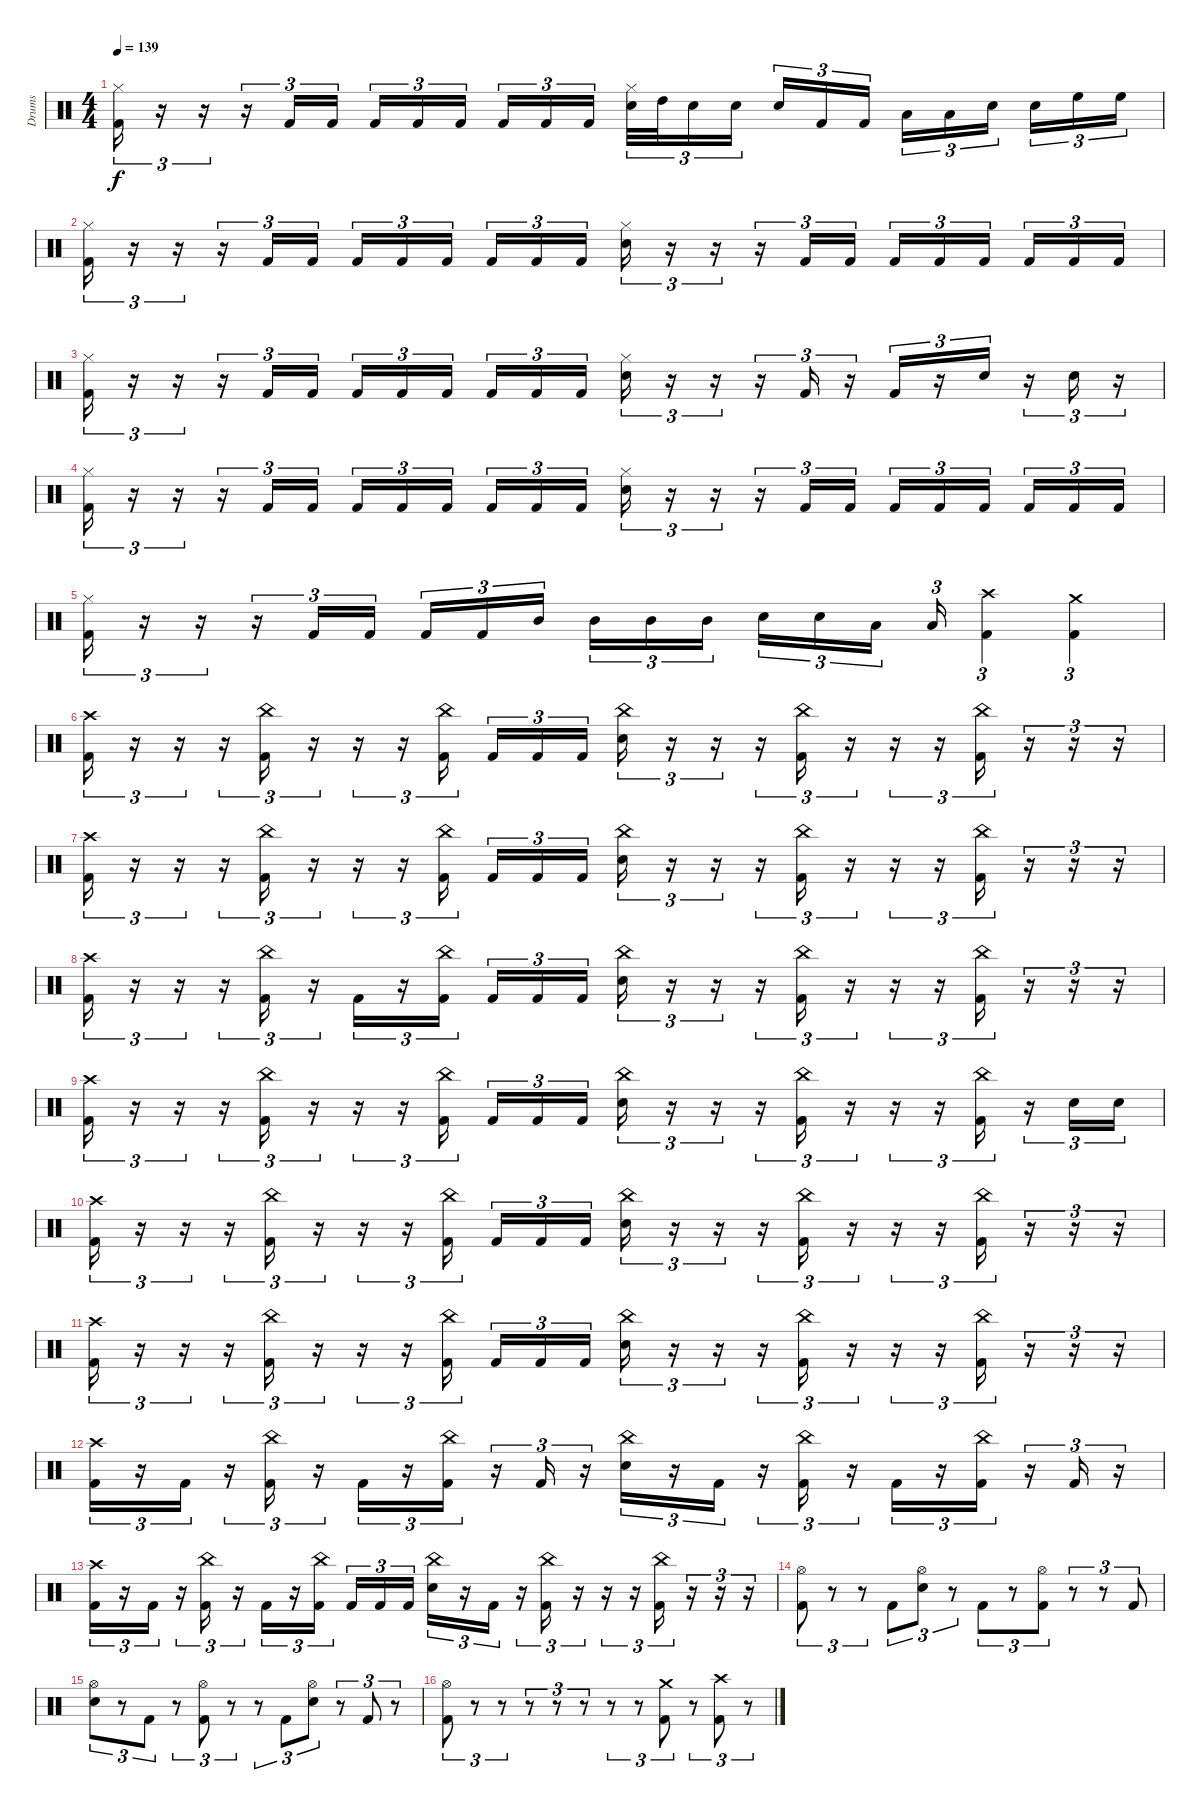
\track ("Drums" "Drums") {instrument percussion}
\staff {score}
\articulation defaults
\ts (4 4)
\tempo 139
\clef neutral
\ks c
("Kick (hit) 2" "Hi-Hat (closed)").16{tu (3 2) dy f} r.16{tu (3 2)} r.16{tu (3 2)} r.16{tu (3 2)} "Kick (hit) 2".16{tu (3 2)} "Kick (hit) 2".16{tu (3 2)} "Kick (hit) 2".16{tu (3 2)} "Kick (hit) 2".16{tu (3 2)} "Kick (hit) 2".16{tu (3 2) beam splitsecondary} "Kick (hit) 2".16{tu (3 2)} "Kick (hit) 2".16{tu (3 2)} "Kick (hit) 2".16{tu (3 2)} ("Snare (hit) 2" "Hi-Hat (closed)").32{tu (3 2)} "High Tom (hit)".32{tu (3 2)} "Snare (hit) 2".16{tu (3 2)} "Snare (hit) 2".16{tu (3 2) beam splitsecondary} "Snare (hit) 2".16{tu (3 2)} "Kick (hit) 2".16{tu (3 2)} "Kick (hit) 2".16{tu (3 2)} "Low Tom (hit)".16{tu (3 2)} "Low Tom (hit)".16{tu (3 2)} "Snare (hit) 2".16{tu (3 2) beam splitsecondary} "Snare (hit) 2".16{tu (3 2)} "High Floor Tom (hit)".16{tu (3 2)} "High Floor Tom (hit)".16{tu (3 2)} |
("Kick (hit) 2" "Hi-Hat (closed)").16{tu (3 2)} r.16{tu (3 2)} r.16{tu (3 2)} r.16{tu (3 2)} "Kick (hit) 2".16{tu (3 2)} "Kick (hit) 2".16{tu (3 2)} "Kick (hit) 2".16{tu (3 2)} "Kick (hit) 2".16{tu (3 2)} "Kick (hit) 2".16{tu (3 2) beam splitsecondary} "Kick (hit) 2".16{tu (3 2)} "Kick (hit) 2".16{tu (3 2)} "Kick (hit) 2".16{tu (3 2)} ("Snare (hit) 2" "Hi-Hat (closed)").16{tu (3 2)} r.16{tu (3 2)} r.16{tu (3 2)} r.16{tu (3 2)} "Kick (hit) 2".16{tu (3 2)} "Kick (hit) 2".16{tu (3 2)} "Kick (hit) 2".16{tu (3 2)} "Kick (hit) 2".16{tu (3 2)} "Kick (hit) 2".16{tu (3 2) beam splitsecondary} "Kick (hit) 2".16{tu (3 2)} "Kick (hit) 2".16{tu (3 2)} "Kick (hit) 2".16{tu (3 2)} |
("Kick (hit) 2" "Hi-Hat (closed)").16{tu (3 2)} r.16{tu (3 2)} r.16{tu (3 2)} r.16{tu (3 2)} "Kick (hit) 2".16{tu (3 2)} "Kick (hit) 2".16{tu (3 2)} "Kick (hit) 2".16{tu (3 2)} "Kick (hit) 2".16{tu (3 2)} "Kick (hit) 2".16{tu (3 2) beam splitsecondary} "Kick (hit) 2".16{tu (3 2)} "Kick (hit) 2".16{tu (3 2)} "Kick (hit) 2".16{tu (3 2)} ("Snare (hit) 2" "Hi-Hat (closed)").16{tu (3 2)} r.16{tu (3 2)} r.16{tu (3 2)} r.16{tu (3 2)} "Kick (hit) 2".16{tu (3 2)} r.16{tu (3 2)} "Kick (hit) 2".16{tu (3 2)} r.16{tu (3 2)} "Snare (hit) 2".16{tu (3 2)} r.16{tu (3 2)} "Snare (hit) 2".16{tu (3 2)} r.16{tu (3 2)} |
("Kick (hit) 2" "Hi-Hat (closed)").16{tu (3 2)} r.16{tu (3 2)} r.16{tu (3 2)} r.16{tu (3 2)} "Kick (hit) 2".16{tu (3 2)} "Kick (hit) 2".16{tu (3 2)} "Kick (hit) 2".16{tu (3 2)} "Kick (hit) 2".16{tu (3 2)} "Kick (hit) 2".16{tu (3 2) beam splitsecondary} "Kick (hit) 2".16{tu (3 2)} "Kick (hit) 2".16{tu (3 2)} "Kick (hit) 2".16{tu (3 2)} ("Snare (hit) 2" "Hi-Hat (closed)").16{tu (3 2)} r.16{tu (3 2)} r.16{tu (3 2)} r.16{tu (3 2)} "Kick (hit) 2".16{tu (3 2)} "Kick (hit) 2".16{tu (3 2)} "Kick (hit) 2".16{tu (3 2)} "Kick (hit) 2".16{tu (3 2)} "Kick (hit) 2".16{tu (3 2) beam splitsecondary} "Kick (hit) 2".16{tu (3 2)} "Kick (hit) 2".16{tu (3 2)} "Kick (hit) 2".16{tu (3 2)} |
("Kick (hit) 2" "Hi-Hat (closed)").16{tu (3 2)} r.16{tu (3 2)} r.16{tu (3 2)} r.16{tu (3 2)} "Kick (hit) 2".16{tu (3 2)} "Kick (hit) 2".16{tu (3 2)} "Kick (hit) 2".16{tu (3 2)} "Kick (hit) 2".16{tu (3 2)} "Mid Tom (hit)".16{tu (3 2) beam splitsecondary} "Mid Tom (hit)".16{tu (3 2)} "Mid Tom (hit)".16{tu (3 2)} "Mid Tom (hit)".16{tu (3 2)} "Snare (hit) 2".16{tu (3 2)} "Snare (hit) 2".16{tu (3 2)} "Low Tom (hit)".16{tu (3 2) beam splitsecondary} "Low Tom (hit)".16{tu (3 2)} ("Kick (hit) 2" "Crash high (hit)").4{tu (3 2)} ("Kick (hit) 2" "Crash medium (hit)").4{tu (3 2)} |
("Kick (hit) 2" "Crash high (hit)").16{tu (3 2)} r.16{tu (3 2)} r.16{tu (3 2)} r.16{tu (3 2)} ("Kick (hit) 2" "China (hit)").16{tu (3 2)} r.16{tu (3 2)} r.16{tu (3 2)} r.16{tu (3 2)} ("Kick (hit) 2" "China (hit)").16{tu (3 2) beam splitsecondary} "Kick (hit) 2".16{tu (3 2)} "Kick (hit) 2".16{tu (3 2)} "Kick (hit) 2".16{tu (3 2)} ("Snare (hit) 2" "China (hit)").16{tu (3 2)} r.16{tu (3 2)} r.16{tu (3 2)} r.16{tu (3 2)} ("Kick (hit) 2" "China (hit)").16{tu (3 2)} r.16{tu (3 2)} r.16{tu (3 2)} r.16{tu (3 2)} ("Kick (hit) 2" "China (hit)").16{tu (3 2)} r.16{tu (3 2)} r.16{tu (3 2)} r.16{tu (3 2)} |
("Kick (hit) 2" "Crash high (hit)").16{tu (3 2)} r.16{tu (3 2)} r.16{tu (3 2)} r.16{tu (3 2)} ("Kick (hit) 2" "China (hit)").16{tu (3 2)} r.16{tu (3 2)} r.16{tu (3 2)} r.16{tu (3 2)} ("Kick (hit) 2" "China (hit)").16{tu (3 2) beam splitsecondary} "Kick (hit) 2".16{tu (3 2)} "Kick (hit) 2".16{tu (3 2)} "Kick (hit) 2".16{tu (3 2)} ("Snare (hit) 2" "China (hit)").16{tu (3 2)} r.16{tu (3 2)} r.16{tu (3 2)} r.16{tu (3 2)} ("Kick (hit) 2" "China (hit)").16{tu (3 2)} r.16{tu (3 2)} r.16{tu (3 2)} r.16{tu (3 2)} ("Kick (hit) 2" "China (hit)").16{tu (3 2)} r.16{tu (3 2)} r.16{tu (3 2)} r.16{tu (3 2)} |
("Kick (hit) 2" "Crash high (hit)").16{tu (3 2)} r.16{tu (3 2)} r.16{tu (3 2)} r.16{tu (3 2)} ("Kick (hit) 2" "China (hit)").16{tu (3 2)} r.16{tu (3 2)} "Kick (hit) 2".16{tu (3 2)} r.16{tu (3 2)} ("Kick (hit) 2" "China (hit)").16{tu (3 2) beam splitsecondary} "Kick (hit) 2".16{tu (3 2)} "Kick (hit) 2".16{tu (3 2)} "Kick (hit) 2".16{tu (3 2)} ("Snare (hit) 2" "China (hit)").16{tu (3 2)} r.16{tu (3 2)} r.16{tu (3 2)} r.16{tu (3 2)} ("Kick (hit) 2" "China (hit)").16{tu (3 2)} r.16{tu (3 2)} r.16{tu (3 2)} r.16{tu (3 2)} ("Kick (hit) 2" "China (hit)").16{tu (3 2)} r.16{tu (3 2)} r.16{tu (3 2)} r.16{tu (3 2)} |
("Kick (hit) 2" "Crash high (hit)").16{tu (3 2)} r.16{tu (3 2)} r.16{tu (3 2)} r.16{tu (3 2)} ("Kick (hit) 2" "China (hit)").16{tu (3 2)} r.16{tu (3 2)} r.16{tu (3 2)} r.16{tu (3 2)} ("Kick (hit) 2" "China (hit)").16{tu (3 2) beam splitsecondary} "Kick (hit) 2".16{tu (3 2)} "Kick (hit) 2".16{tu (3 2)} "Kick (hit) 2".16{tu (3 2)} ("Snare (hit) 2" "China (hit)").16{tu (3 2)} r.16{tu (3 2)} r.16{tu (3 2)} r.16{tu (3 2)} ("Kick (hit) 2" "China (hit)").16{tu (3 2)} r.16{tu (3 2)} r.16{tu (3 2)} r.16{tu (3 2)} ("Kick (hit) 2" "China (hit)").16{tu (3 2)} r.16{tu (3 2)} "Snare (hit) 2".16{tu (3 2)} "Snare (hit) 2".16{tu (3 2)} |
("Kick (hit) 2" "Crash high (hit)").16{tu (3 2)} r.16{tu (3 2)} r.16{tu (3 2)} r.16{tu (3 2)} ("Kick (hit) 2" "China (hit)").16{tu (3 2)} r.16{tu (3 2)} r.16{tu (3 2)} r.16{tu (3 2)} ("Kick (hit) 2" "China (hit)").16{tu (3 2) beam splitsecondary} "Kick (hit) 2".16{tu (3 2)} "Kick (hit) 2".16{tu (3 2)} "Kick (hit) 2".16{tu (3 2)} ("Snare (hit) 2" "China (hit)").16{tu (3 2)} r.16{tu (3 2)} r.16{tu (3 2)} r.16{tu (3 2)} ("Kick (hit) 2" "China (hit)").16{tu (3 2)} r.16{tu (3 2)} r.16{tu (3 2)} r.16{tu (3 2)} ("Kick (hit) 2" "China (hit)").16{tu (3 2)} r.16{tu (3 2)} r.16{tu (3 2)} r.16{tu (3 2)} |
("Kick (hit) 2" "Crash high (hit)").16{tu (3 2)} r.16{tu (3 2)} r.16{tu (3 2)} r.16{tu (3 2)} ("Kick (hit) 2" "China (hit)").16{tu (3 2)} r.16{tu (3 2)} r.16{tu (3 2)} r.16{tu (3 2)} ("Kick (hit) 2" "China (hit)").16{tu (3 2) beam splitsecondary} "Kick (hit) 2".16{tu (3 2)} "Kick (hit) 2".16{tu (3 2)} "Kick (hit) 2".16{tu (3 2)} ("Snare (hit) 2" "China (hit)").16{tu (3 2)} r.16{tu (3 2)} r.16{tu (3 2)} r.16{tu (3 2)} ("Kick (hit) 2" "China (hit)").16{tu (3 2)} r.16{tu (3 2)} r.16{tu (3 2)} r.16{tu (3 2)} ("Kick (hit) 2" "China (hit)").16{tu (3 2)} r.16{tu (3 2)} r.16{tu (3 2)} r.16{tu (3 2)} |
("Kick (hit) 2" "Crash high (hit)").16{tu (3 2)} r.16{tu (3 2)} "Kick (hit) 2".16{tu (3 2)} r.16{tu (3 2)} ("Kick (hit) 2" "China (hit)").16{tu (3 2)} r.16{tu (3 2)} "Kick (hit) 2".16{tu (3 2)} r.16{tu (3 2)} ("Kick (hit) 2" "China (hit)").16{tu (3 2)} r.16{tu (3 2)} "Kick (hit) 2".16{tu (3 2)} r.16{tu (3 2)} ("Snare (hit) 2" "China (hit)").16{tu (3 2)} r.16{tu (3 2)} "Kick (hit) 2".16{tu (3 2)} r.16{tu (3 2)} ("Kick (hit) 2" "China (hit)").16{tu (3 2)} r.16{tu (3 2)} "Kick (hit) 2".16{tu (3 2)} r.16{tu (3 2)} ("Kick (hit) 2" "China (hit)").16{tu (3 2)} r.16{tu (3 2)} "Kick (hit) 2".16{tu (3 2)} r.16{tu (3 2)} |
("Kick (hit) 2" "Crash high (hit)").16{tu (3 2)} r.16{tu (3 2)} "Kick (hit) 2".16{tu (3 2)} r.16{tu (3 2)} ("Kick (hit) 2" "China (hit)").16{tu (3 2)} r.16{tu (3 2)} "Kick (hit) 2".16{tu (3 2)} r.16{tu (3 2)} ("Kick (hit) 2" "China (hit)").16{tu (3 2) beam splitsecondary} "Kick (hit) 2".16{tu (3 2)} "Kick (hit) 2".16{tu (3 2)} "Kick (hit) 2".16{tu (3 2)} ("Snare (hit) 2" "China (hit)").16{tu (3 2)} r.16{tu (3 2)} "Kick (hit) 2".16{tu (3 2)} r.16{tu (3 2)} ("Kick (hit) 2" "China (hit)").16{tu (3 2)} r.16{tu (3 2)} r.16{tu (3 2)} r.16{tu (3 2)} ("Kick (hit) 2" "China (hit)").16{tu (3 2)} r.16{tu (3 2)} r.16{tu (3 2)} r.16{tu (3 2)} |
("Kick (hit) 2" "Hi-Hat (open)").8{tu (3 2)} r.8{tu (3 2)} r.8{tu (3 2)} "Kick (hit) 2".8{tu (3 2)} ("Snare (hit) 2" "Hi-Hat (open)").8{tu (3 2)} r.8{tu (3 2)} "Kick (hit) 2".8{tu (3 2)} r.8{tu (3 2)} ("Kick (hit) 2" "Hi-Hat (open)").8{tu (3 2)} r.8{tu (3 2)} r.8{tu (3 2)} "Kick (hit) 2".8{tu (3 2)} |
("Snare (hit) 2" "Hi-Hat (open)").8{tu (3 2)} r.8{tu (3 2)} "Kick (hit) 2".8{tu (3 2)} r.8{tu (3 2)} ("Kick (hit) 2" "Hi-Hat (open)").8{tu (3 2)} r.8{tu (3 2)} r.8{tu (3 2)} "Kick (hit) 2".8{tu (3 2)} ("Snare (hit) 2" "Hi-Hat (open)").8{tu (3 2)} r.8{tu (3 2)} "Kick (hit) 2".8{tu (3 2)} r.8{tu (3 2)} |
("Kick (hit) 2" "Hi-Hat (open)").8{tu (3 2)} r.8{tu (3 2)} r.8{tu (3 2)} r.8{tu (3 2)} r.8{tu (3 2)} r.8{tu (3 2)} r.8{tu (3 2)} r.8{tu (3 2)} ("Kick (hit) 2" "Crash medium (hit)").8{tu (3 2)} r.8{tu (3 2)} ("Kick (hit) 2" "Crash high (hit)").8{tu (3 2)} r.8{tu (3 2)}
